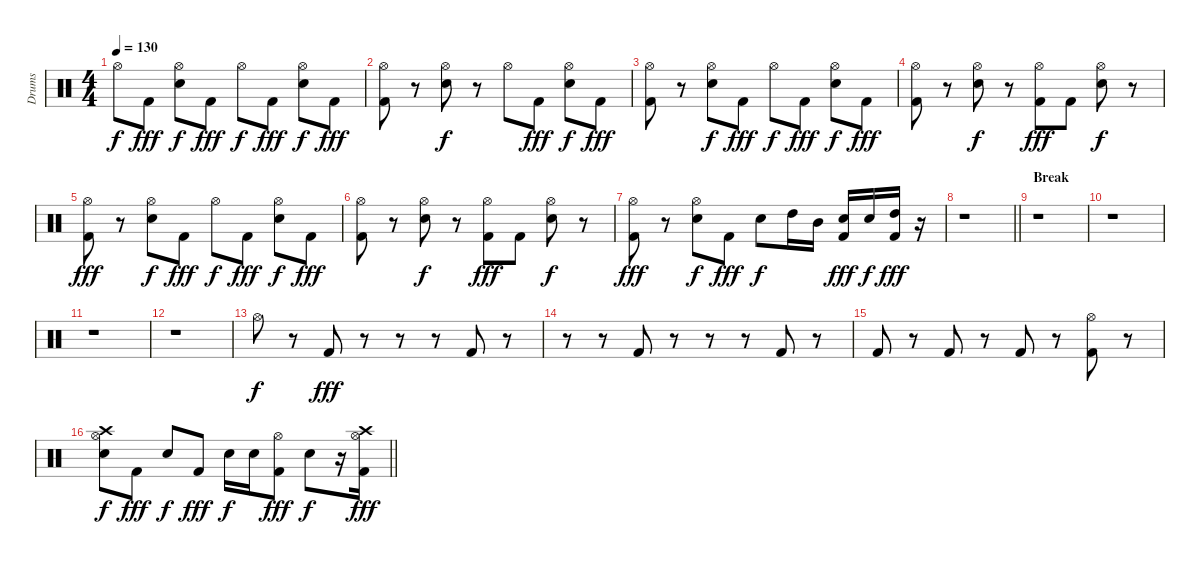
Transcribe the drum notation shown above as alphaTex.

\track ("Drums" "Drums") {instrument percussion}
\staff {score}
\articulation defaults
\ts (4 4)
\tempo 130
\clef neutral
\ks c "Hi-Hat (open)".8{dy f} "Kick (hit) 2".8{dy fff}
("Snare (hit) 2" "Hi-Hat (open)").8{dy f} "Kick (hit) 2".8{dy fff} "Hi-Hat (open)".8{dy f} "Kick (hit) 2".8{dy fff} ("Snare (hit) 2" "Hi-Hat (open)").8{dy f} "Kick (hit) 2".8{dy fff} |
("Kick (hit) 2" "Hi-Hat (open)").8 r.8 ("Snare (hit) 2" "Hi-Hat (open)").8{dy f} r.8 "Hi-Hat (open)".8 "Kick (hit) 2".8{dy fff} ("Snare (hit) 2" "Hi-Hat (open)").8{dy f} "Kick (hit) 2".8{dy fff} |
("Kick (hit) 2" "Hi-Hat (open)").8 r.8 ("Snare (hit) 2" "Hi-Hat (open)").8{dy f} "Kick (hit) 2".8{dy fff} "Hi-Hat (open)".8{dy f} "Kick (hit) 2".8{dy fff} ("Snare (hit) 2" "Hi-Hat (open)").8{dy f} "Kick (hit) 2".8{dy fff} |
("Kick (hit) 2" "Hi-Hat (open)").8 r.8 ("Snare (hit) 2" "Hi-Hat (open)").8{dy f} r.8 ("Kick (hit) 2" "Hi-Hat (open)").8{dy fff} "Kick (hit) 2".8 ("Snare (hit) 2" "Hi-Hat (open)").8{dy f} r.8 |
("Kick (hit) 2" "Hi-Hat (open)").8{dy fff} r.8 ("Snare (hit) 2" "Hi-Hat (open)").8{dy f} "Kick (hit) 2".8{dy fff} "Hi-Hat (open)".8{dy f} "Kick (hit) 2".8{dy fff} ("Snare (hit) 2" "Hi-Hat (open)").8{dy f} "Kick (hit) 2".8{dy fff} |
("Kick (hit) 2" "Hi-Hat (open)").8 r.8 ("Snare (hit) 2" "Hi-Hat (open)").8{dy f} r.8 ("Kick (hit) 2" "Hi-Hat (open)").8{dy fff} "Kick (hit) 2".8 ("Snare (hit) 2" "Hi-Hat (open)").8{dy f} r.8 |
("Kick (hit) 2" "Hi-Hat (open)").8{dy fff} r.8 ("Snare (hit) 2" "Hi-Hat (open)").8{dy f} "Kick (hit) 2".8{dy fff} "Snare (hit) 2".8{dy f} "High Tom (hit)".16 "Mid Tom (hit)".16 ("Kick (hit) 2" "Snare (hit) 2").16{dy fff} "Snare (hit) 2".16{dy f} ("Kick (hit) 2" "High Tom (hit)").16{dy fff} r.16 |
\barLineRight lightlight
r.1 |
\section ("" "Break ")
r.1 |
r.1 |
r.1 |
r.1 |
"Hi-Hat (open)".8{dy f} r.8 "Kick (hit) 2".8{dy fff} r.8 r.8 r.8 "Kick (hit) 2".8 r.8 |
r.8 r.8 "Kick (hit) 2".8 r.8 r.8 r.8 "Kick (hit) 2".8 r.8 |
"Kick (hit) 2".8 r.8 "Kick (hit) 2".8 r.8 "Kick (hit) 2".8 r.8 ("Kick (hit) 2" "Hi-Hat (open)").8 r.8 |
\barLineRight lightlight
("Snare (hit) 2" "Crash high (hit)" "Hi-Hat (open)").8{dy f} "Kick (hit) 2".8{dy fff} "Snare (hit) 2".8{dy f} "Kick (hit) 2".8{dy fff} "Snare (hit) 2".16{dy f} "Snare (hit) 2".16 ("Kick (hit) 2" "Hi-Hat (open)").8{dy fff} "Snare (hit) 2".8{dy f} r.16 ("Kick (hit) 2" "Crash high (hit)" "Hi-Hat (open)").16{dy fff}
